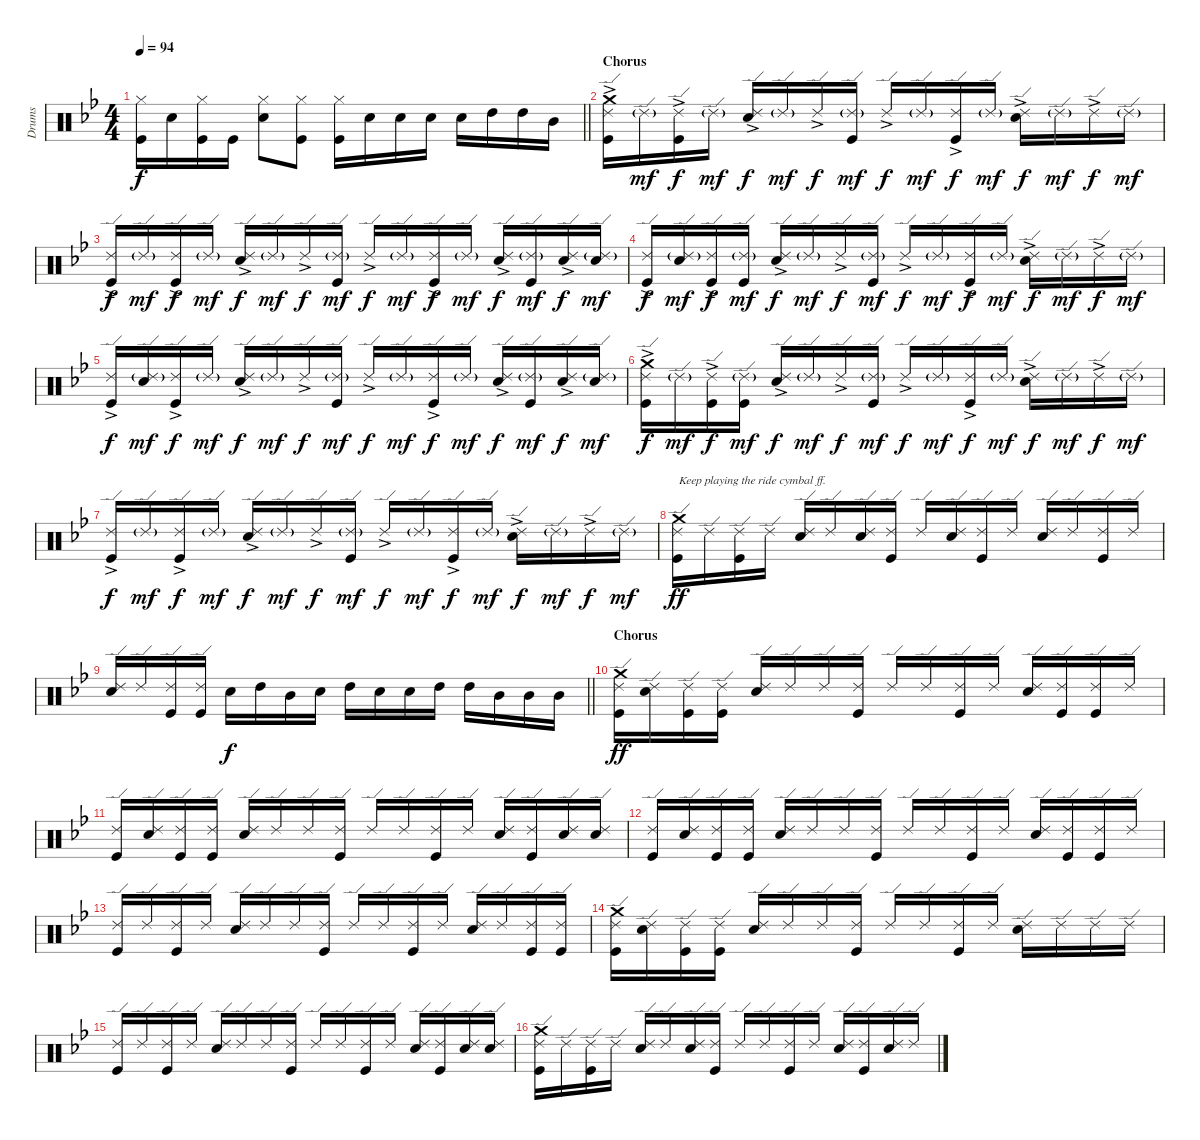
\track ("Drums" "Drums") {instrument percussion}
\staff {score}
\articulation defaults
\ts (4 4)
\tempo 94
\clef neutral
\barLineRight lightlight
\ks gminor
("Hi-Hat (closed)" "Kick (hit)").16{dy f} "Electric Snare (hit)".16 ("Hi-Hat (closed)" "Kick (hit)").16 "Kick (hit)".16 ("Hi-Hat (closed)" "Electric Snare (hit)").8 ("Hi-Hat (closed)" "Kick (hit)").8 ("Hi-Hat (closed)" "Kick (hit)").16 "Electric Snare (hit)".16 "Electric Snare (hit)".16 "Electric Snare (hit)".16 "Electric Snare (hit)".16 "High Tom (hit)".16 "High Tom (hit)".16 "Mid Tom (hit)".16 |
\section ("" "Chorus")
("Ride (edge) 2"{ac} "Crash medium (hit)" "Kick (hit)").16 "Ride (edge) 2"{g}.16{dy mf} ("Ride (edge) 2"{ac} "Kick (hit)").16{dy f} "Ride (edge) 2"{g}.16{dy mf} ("Ride (edge) 2"{ac} "Electric Snare (hit)").16{dy f} "Ride (edge) 2"{g}.16{dy mf} "Ride (edge) 2"{ac}.16{dy f} ("Ride (edge) 2"{g} "Kick (hit)").16{dy mf} "Ride (edge) 2"{ac}.16{dy f} "Ride (edge) 2"{g}.16{dy mf} ("Ride (edge) 2"{ac} "Kick (hit)").16{dy f} "Ride (edge) 2"{g}.16{dy mf} ("Ride (edge) 2"{ac} "Electric Snare (hit)").16{dy f} "Ride (edge) 2"{g}.16{dy mf} "Ride (edge) 2"{ac}.16{dy f} "Ride (edge) 2"{g}.16{dy mf} |
("Ride (edge) 2"{ac} "Kick (hit)").16{dy f} "Ride (edge) 2"{g}.16{dy mf} ("Ride (edge) 2"{ac} "Kick (hit)").16{dy f} "Ride (edge) 2"{g}.16{dy mf} ("Ride (edge) 2"{ac} "Electric Snare (hit)").16{dy f} "Ride (edge) 2"{g}.16{dy mf} "Ride (edge) 2"{ac}.16{dy f} ("Ride (edge) 2"{g} "Kick (hit)").16{dy mf} "Ride (edge) 2"{ac}.16{dy f} "Ride (edge) 2"{g}.16{dy mf} ("Ride (edge) 2"{ac} "Kick (hit)").16{dy f} "Ride (edge) 2"{g}.16{dy mf} ("Ride (edge) 2"{ac} "Electric Snare (hit)").16{dy f} ("Ride (edge) 2"{g} "Kick (hit)").16{dy mf} ("Ride (edge) 2"{ac} "Electric Snare (hit)").16{dy f} ("Ride (edge) 2"{g} "Electric Snare (hit)").16{dy mf} |
("Ride (edge) 2"{ac} "Kick (hit)").16{dy f} ("Ride (edge) 2"{g} "Electric Snare (hit)").16{dy mf} ("Ride (edge) 2"{ac} "Kick (hit)").16{dy f} ("Ride (edge) 2"{g} "Kick (hit)").16{dy mf} ("Ride (edge) 2"{ac} "Electric Snare (hit)").16{dy f} "Ride (edge) 2"{g}.16{dy mf} "Ride (edge) 2"{ac}.16{dy f} ("Ride (edge) 2"{g} "Kick (hit)").16{dy mf} "Ride (edge) 2"{ac}.16{dy f} "Ride (edge) 2"{g}.16{dy mf} ("Ride (edge) 2"{ac} "Kick (hit)").16{dy f} "Ride (edge) 2"{g}.16{dy mf} ("Ride (edge) 2"{ac} "Electric Snare (hit)").16{dy f} "Ride (edge) 2"{g}.16{dy mf} "Ride (edge) 2"{ac}.16{dy f} "Ride (edge) 2"{g}.16{dy mf} |
("Ride (edge) 2"{ac} "Kick (hit)").16{dy f} ("Ride (edge) 2"{g} "Electric Snare (hit)").16{dy mf} ("Ride (edge) 2"{ac} "Kick (hit)").16{dy f} "Ride (edge) 2"{g}.16{dy mf} ("Ride (edge) 2"{ac} "Electric Snare (hit)").16{dy f} "Ride (edge) 2"{g}.16{dy mf} "Ride (edge) 2"{ac}.16{dy f} ("Ride (edge) 2"{g} "Kick (hit)").16{dy mf} "Ride (edge) 2"{ac}.16{dy f} "Ride (edge) 2"{g}.16{dy mf} ("Ride (edge) 2"{ac} "Kick (hit)").16{dy f} "Ride (edge) 2"{g}.16{dy mf} ("Ride (edge) 2"{ac} "Electric Snare (hit)").16{dy f} ("Ride (edge) 2"{g} "Kick (hit)").16{dy mf} ("Ride (edge) 2"{ac} "Electric Snare (hit)").16{dy f} ("Ride (edge) 2"{g} "Electric Snare (hit)").16{dy mf} |
("Ride (edge) 2"{ac} "Crash medium (hit)" "Kick (hit)").16{dy f} "Ride (edge) 2"{g}.16{dy mf} ("Ride (edge) 2"{ac} "Kick (hit)").16{dy f} ("Ride (edge) 2"{g} "Kick (hit)").16{dy mf} ("Ride (edge) 2"{ac} "Electric Snare (hit)").16{dy f} "Ride (edge) 2"{g}.16{dy mf} "Ride (edge) 2"{ac}.16{dy f} ("Ride (edge) 2"{g} "Kick (hit)").16{dy mf} "Ride (edge) 2"{ac}.16{dy f} "Ride (edge) 2"{g}.16{dy mf} ("Ride (edge) 2"{ac} "Kick (hit)").16{dy f} "Ride (edge) 2"{g}.16{dy mf} ("Ride (edge) 2"{ac} "Electric Snare (hit)").16{dy f} "Ride (edge) 2"{g}.16{dy mf} "Ride (edge) 2"{ac}.16{dy f} "Ride (edge) 2"{g}.16{dy mf} |
("Ride (edge) 2"{ac} "Kick (hit)").16{dy f} "Ride (edge) 2"{g}.16{dy mf} ("Ride (edge) 2"{ac} "Kick (hit)").16{dy f} "Ride (edge) 2"{g}.16{dy mf} ("Ride (edge) 2"{ac} "Electric Snare (hit)").16{dy f} "Ride (edge) 2"{g}.16{dy mf} "Ride (edge) 2"{ac}.16{dy f} ("Ride (edge) 2"{g} "Kick (hit)").16{dy mf} "Ride (edge) 2"{ac}.16{dy f} "Ride (edge) 2"{g}.16{dy mf} ("Ride (edge) 2"{ac} "Kick (hit)").16{dy f} "Ride (edge) 2"{g}.16{dy mf} ("Ride (edge) 2"{ac} "Electric Snare (hit)").16{dy f} "Ride (edge) 2"{g}.16{dy mf} "Ride (edge) 2"{ac}.16{dy f} "Ride (edge) 2"{g}.16{dy mf} |
("Ride (edge) 2" "Crash medium (hit)" "Kick (hit)").16{txt "Keep playing the ride cymbal ff." dy ff} "Ride (edge) 2".16 ("Ride (edge) 2" "Kick (hit)").16 "Ride (edge) 2".16 ("Ride (edge) 2" "Electric Snare (hit)").16 "Ride (edge) 2".16 ("Ride (edge) 2" "Electric Snare (hit)").16 ("Ride (edge) 2" "Kick (hit)").16 "Ride (edge) 2".16 ("Ride (edge) 2" "Electric Snare (hit)").16 ("Ride (edge) 2" "Kick (hit)").16 "Ride (edge) 2".16 ("Ride (edge) 2" "Electric Snare (hit)").16 "Ride (edge) 2".16 ("Ride (edge) 2" "Kick (hit)").16 "Ride (edge) 2".16 |
\barLineRight lightlight
("Ride (edge) 2" "Electric Snare (hit)").16 "Ride (edge) 2".16 ("Ride (edge) 2" "Kick (hit)").16 ("Ride (edge) 2" "Kick (hit)").16 "Electric Snare (hit)".16{dy f} "High Tom (hit)".16 "Mid Tom (hit)".16 "Electric Snare (hit)".16 "High Tom (hit)".16 "Electric Snare (hit)".16 "Electric Snare (hit)".16 "High Tom (hit)".16 "High Tom (hit)".16 "Mid Tom (hit)".16 "Mid Tom (hit)".16 "Mid Tom (hit)".16 |
\section ("" "Chorus")
("Ride (edge) 2" "Crash medium (hit)" "Kick (hit)").16{dy ff} ("Ride (edge) 2" "Electric Snare (hit)").16 ("Ride (edge) 2" "Kick (hit)").16 ("Ride (edge) 2" "Kick (hit)").16 ("Ride (edge) 2" "Electric Snare (hit)").16 "Ride (edge) 2".16 "Ride (edge) 2".16 ("Ride (edge) 2" "Kick (hit)").16 "Ride (edge) 2".16 "Ride (edge) 2".16 ("Ride (edge) 2" "Kick (hit)").16 "Ride (edge) 2".16 ("Ride (edge) 2" "Electric Snare (hit)").16 ("Ride (edge) 2" "Kick (hit)").16 ("Ride (edge) 2" "Kick (hit)").16 "Ride (edge) 2".16 |
("Ride (edge) 2" "Kick (hit)").16 ("Ride (edge) 2" "Electric Snare (hit)").16 ("Ride (edge) 2" "Kick (hit)").16 ("Ride (edge) 2" "Kick (hit)").16 ("Ride (edge) 2" "Electric Snare (hit)").16 "Ride (edge) 2".16 "Ride (edge) 2".16 ("Ride (edge) 2" "Kick (hit)").16 "Ride (edge) 2".16 "Ride (edge) 2".16 ("Ride (edge) 2" "Kick (hit)").16 "Ride (edge) 2".16 ("Ride (edge) 2" "Electric Snare (hit)").16 ("Ride (edge) 2" "Kick (hit)").16 ("Ride (edge) 2" "Electric Snare (hit)").16 ("Ride (edge) 2" "Electric Snare (hit)").16 |
("Ride (edge) 2" "Kick (hit)").16 ("Ride (edge) 2" "Electric Snare (hit)").16 ("Ride (edge) 2" "Kick (hit)").16 ("Ride (edge) 2" "Kick (hit)").16 ("Ride (edge) 2" "Electric Snare (hit)").16 "Ride (edge) 2".16 "Ride (edge) 2".16 ("Ride (edge) 2" "Kick (hit)").16 "Ride (edge) 2".16 "Ride (edge) 2".16 ("Ride (edge) 2" "Kick (hit)").16 "Ride (edge) 2".16 ("Ride (edge) 2" "Electric Snare (hit)").16 ("Ride (edge) 2" "Kick (hit)").16 ("Ride (edge) 2" "Kick (hit)").16 "Ride (edge) 2".16 |
("Ride (edge) 2" "Kick (hit)").16 "Ride (edge) 2".16 ("Ride (edge) 2" "Kick (hit)").16 "Ride (edge) 2".16 ("Ride (edge) 2" "Electric Snare (hit)").16 "Ride (edge) 2".16 "Ride (edge) 2".16 ("Ride (edge) 2" "Kick (hit)").16 "Ride (edge) 2".16 "Ride (edge) 2".16 ("Ride (edge) 2" "Kick (hit)").16 "Ride (edge) 2".16 ("Ride (edge) 2" "Electric Snare (hit)").16 "Ride (edge) 2".16 ("Ride (edge) 2" "Kick (hit)").16 ("Ride (edge) 2" "Kick (hit)").16 |
("Ride (edge) 2" "Crash medium (hit)" "Kick (hit)").16 ("Ride (edge) 2" "Electric Snare (hit)").16 ("Ride (edge) 2" "Kick (hit)").16 ("Ride (edge) 2" "Kick (hit)").16 ("Ride (edge) 2" "Electric Snare (hit)").16 "Ride (edge) 2".16 "Ride (edge) 2".16 ("Ride (edge) 2" "Kick (hit)").16 "Ride (edge) 2".16 "Ride (edge) 2".16 ("Ride (edge) 2" "Kick (hit)").16 "Ride (edge) 2".16 ("Ride (edge) 2" "Electric Snare (hit)").16 "Ride (edge) 2".16 "Ride (edge) 2".16 "Ride (edge) 2".16 |
("Ride (edge) 2" "Kick (hit)").16 "Ride (edge) 2".16 ("Ride (edge) 2" "Kick (hit)").16 "Ride (edge) 2".16 ("Ride (edge) 2" "Electric Snare (hit)").16 "Ride (edge) 2".16 "Ride (edge) 2".16 ("Ride (edge) 2" "Kick (hit)").16 "Ride (edge) 2".16 "Ride (edge) 2".16 ("Ride (edge) 2" "Kick (hit)").16 "Ride (edge) 2".16 ("Ride (edge) 2" "Electric Snare (hit)").16 ("Ride (edge) 2" "Kick (hit)").16 ("Ride (edge) 2" "Electric Snare (hit)").16 ("Ride (edge) 2" "Electric Snare (hit)").16 |
("Ride (edge) 2" "Crash medium (hit)" "Kick (hit)").16 "Ride (edge) 2".16 ("Ride (edge) 2" "Kick (hit)").16 "Ride (edge) 2".16 ("Ride (edge) 2" "Electric Snare (hit)").16 "Ride (edge) 2".16 ("Ride (edge) 2" "Electric Snare (hit)").16 ("Ride (edge) 2" "Kick (hit)").16 "Ride (edge) 2".16 "Ride (edge) 2".16 ("Ride (edge) 2" "Kick (hit)").16 "Ride (edge) 2".16 ("Ride (edge) 2" "Electric Snare (hit)").16 ("Ride (edge) 2" "Kick (hit)").16 ("Ride (edge) 2" "Electric Snare (hit)").16 "Ride (edge) 2".16
